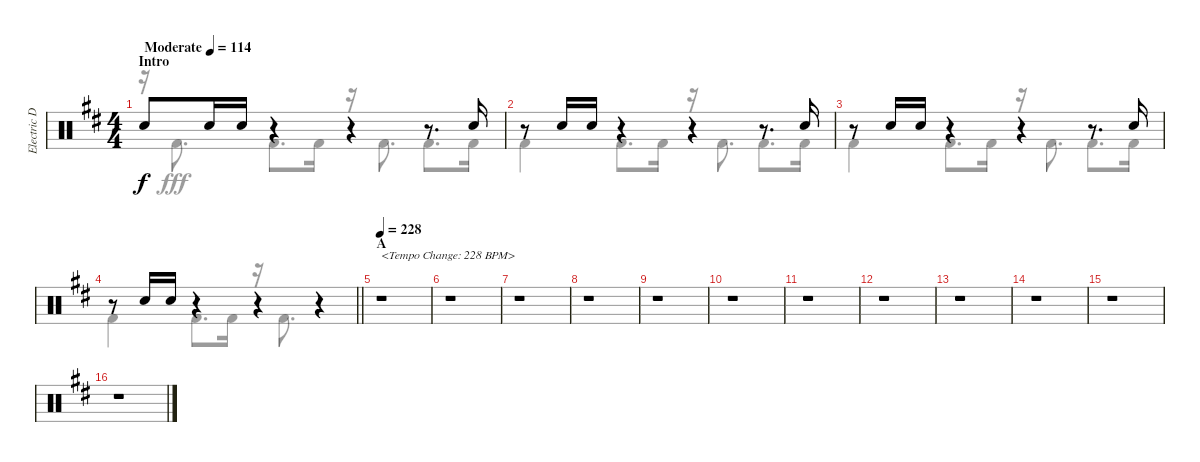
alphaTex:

\track ("Electric Drums" "Electric D") {instrument percussion}
\staff {score}
\articulation defaults
\voice
\ts (4 4)
\section ("" "Intro")
\tempo (114 "Moderate")
\clef neutral
\ks d "Snare (hit) 2".8{dy f} "Snare (hit) 2".16 "Snare (hit) 2".16
r.4 r.4 r.8{d} "Snare (hit) 2".16 |
r.8 "Snare (hit) 2".16 "Snare (hit) 2".16 r.4 r.4 r.8{d} "Snare (hit) 2".16 |
r.8 "Snare (hit) 2".16 "Snare (hit) 2".16 r.4 r.4 r.8{d} "Snare (hit) 2".16 |
\barLineRight lightlight
r.8 "Snare (hit) 2".16 "Snare (hit) 2".16 r.4 r.4 r.4 |
\section ("" "A")
\tempo 228
r.1{txt "<Tempo Change: 228 BPM>"} |
r.1 |
r.1 |
r.1 |
r.1 |
r.1 |
r.1 |
r.1 |
r.1 |
r.1 |
r.1 |
r.1
\voice
\clef neutral
\ottava regular
\simile none
\ks d
r.16{dy fff} "Kick (hit) 2".8{d} "Kick (hit) 2".8{d} "Kick (hit) 2".16 r.16 "Kick (hit) 2".8{d} "Kick (hit) 2".8{d} "Kick (hit) 2".16 |
"Kick (hit) 2".4 "Kick (hit) 2".8{d} "Kick (hit) 2".16 r.16 "Kick (hit) 2".8{d} "Kick (hit) 2".8{d} "Kick (hit) 2".16 |
"Kick (hit) 2".4 "Kick (hit) 2".8{d} "Kick (hit) 2".16 r.16 "Kick (hit) 2".8{d} "Kick (hit) 2".8{d} "Kick (hit) 2".16 |
\barLineRight lightlight "Kick (hit) 2".4 "Kick (hit) 2".8{d} "Kick (hit) 2".16
r.16 "Kick (hit) 2".8{d} r.4 |
|
|
|
|
|
|
|
|
|
|
|
